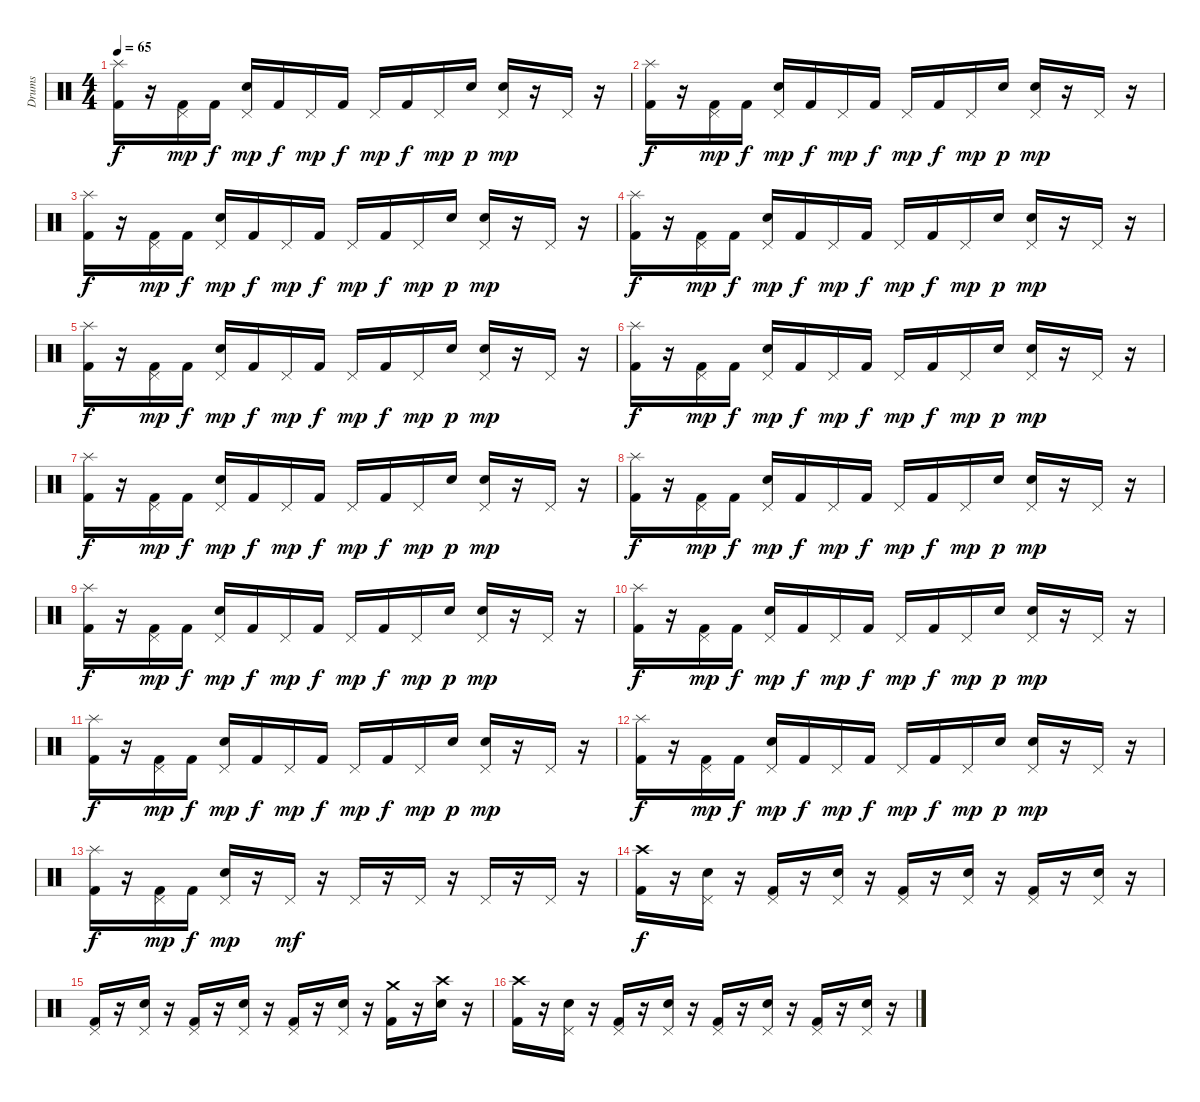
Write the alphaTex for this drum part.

\track ("Drums" "Drums") {instrument percussion}
\staff {score}
\articulation defaults
\ts (4 4)
\tempo 65
\clef neutral
\ks c
("Splash (hit)" "Kick (hit) 2").16{dy f} r.16 ("Pedal Hi-Hat (hit)" "Kick (hit) 2").16{dy mp} "Kick (hit) 2".16{dy f} ("Pedal Hi-Hat (hit)" "Snare (hit) 2").16{dy mp} "Kick (hit) 2".16{dy f} "Pedal Hi-Hat (hit)".16{dy mp} "Kick (hit) 2".16{dy f} "Pedal Hi-Hat (hit)".16{dy mp} "Kick (hit) 2".16{dy f} "Pedal Hi-Hat (hit)".16{dy mp} "Snare (hit) 2".16{dy p} ("Pedal Hi-Hat (hit)" "Snare (hit) 2").16{dy mp} r.16 "Pedal Hi-Hat (hit)".16 r.16 |
("Splash (hit)" "Kick (hit) 2").16{dy f} r.16 ("Pedal Hi-Hat (hit)" "Kick (hit) 2").16{dy mp} "Kick (hit) 2".16{dy f} ("Pedal Hi-Hat (hit)" "Snare (hit) 2").16{dy mp} "Kick (hit) 2".16{dy f} "Pedal Hi-Hat (hit)".16{dy mp} "Kick (hit) 2".16{dy f} "Pedal Hi-Hat (hit)".16{dy mp} "Kick (hit) 2".16{dy f} "Pedal Hi-Hat (hit)".16{dy mp} "Snare (hit) 2".16{dy p} ("Pedal Hi-Hat (hit)" "Snare (hit) 2").16{dy mp} r.16 "Pedal Hi-Hat (hit)".16 r.16 |
("Splash (hit)" "Kick (hit) 2").16{dy f} r.16 ("Pedal Hi-Hat (hit)" "Kick (hit) 2").16{dy mp} "Kick (hit) 2".16{dy f} ("Pedal Hi-Hat (hit)" "Snare (hit) 2").16{dy mp} "Kick (hit) 2".16{dy f} "Pedal Hi-Hat (hit)".16{dy mp} "Kick (hit) 2".16{dy f} "Pedal Hi-Hat (hit)".16{dy mp} "Kick (hit) 2".16{dy f} "Pedal Hi-Hat (hit)".16{dy mp} "Snare (hit) 2".16{dy p} ("Pedal Hi-Hat (hit)" "Snare (hit) 2").16{dy mp} r.16 "Pedal Hi-Hat (hit)".16 r.16 |
("Splash (hit)" "Kick (hit) 2").16{dy f} r.16 ("Pedal Hi-Hat (hit)" "Kick (hit) 2").16{dy mp} "Kick (hit) 2".16{dy f} ("Pedal Hi-Hat (hit)" "Snare (hit) 2").16{dy mp} "Kick (hit) 2".16{dy f} "Pedal Hi-Hat (hit)".16{dy mp} "Kick (hit) 2".16{dy f} "Pedal Hi-Hat (hit)".16{dy mp} "Kick (hit) 2".16{dy f} "Pedal Hi-Hat (hit)".16{dy mp} "Snare (hit) 2".16{dy p} ("Pedal Hi-Hat (hit)" "Snare (hit) 2").16{dy mp} r.16 "Pedal Hi-Hat (hit)".16 r.16 |
("Splash (hit)" "Kick (hit) 2").16{dy f} r.16 ("Pedal Hi-Hat (hit)" "Kick (hit) 2").16{dy mp} "Kick (hit) 2".16{dy f} ("Pedal Hi-Hat (hit)" "Snare (hit) 2").16{dy mp} "Kick (hit) 2".16{dy f} "Pedal Hi-Hat (hit)".16{dy mp} "Kick (hit) 2".16{dy f} "Pedal Hi-Hat (hit)".16{dy mp} "Kick (hit) 2".16{dy f} "Pedal Hi-Hat (hit)".16{dy mp} "Snare (hit) 2".16{dy p} ("Pedal Hi-Hat (hit)" "Snare (hit) 2").16{dy mp} r.16 "Pedal Hi-Hat (hit)".16 r.16 |
("Splash (hit)" "Kick (hit) 2").16{dy f} r.16 ("Pedal Hi-Hat (hit)" "Kick (hit) 2").16{dy mp} "Kick (hit) 2".16{dy f} ("Pedal Hi-Hat (hit)" "Snare (hit) 2").16{dy mp} "Kick (hit) 2".16{dy f} "Pedal Hi-Hat (hit)".16{dy mp} "Kick (hit) 2".16{dy f} "Pedal Hi-Hat (hit)".16{dy mp} "Kick (hit) 2".16{dy f} "Pedal Hi-Hat (hit)".16{dy mp} "Snare (hit) 2".16{dy p} ("Pedal Hi-Hat (hit)" "Snare (hit) 2").16{dy mp} r.16 "Pedal Hi-Hat (hit)".16 r.16 |
("Splash (hit)" "Kick (hit) 2").16{dy f} r.16 ("Pedal Hi-Hat (hit)" "Kick (hit) 2").16{dy mp} "Kick (hit) 2".16{dy f} ("Pedal Hi-Hat (hit)" "Snare (hit) 2").16{dy mp} "Kick (hit) 2".16{dy f} "Pedal Hi-Hat (hit)".16{dy mp} "Kick (hit) 2".16{dy f} "Pedal Hi-Hat (hit)".16{dy mp} "Kick (hit) 2".16{dy f} "Pedal Hi-Hat (hit)".16{dy mp} "Snare (hit) 2".16{dy p} ("Pedal Hi-Hat (hit)" "Snare (hit) 2").16{dy mp} r.16 "Pedal Hi-Hat (hit)".16 r.16 |
("Splash (hit)" "Kick (hit) 2").16{dy f} r.16 ("Pedal Hi-Hat (hit)" "Kick (hit) 2").16{dy mp} "Kick (hit) 2".16{dy f} ("Pedal Hi-Hat (hit)" "Snare (hit) 2").16{dy mp} "Kick (hit) 2".16{dy f} "Pedal Hi-Hat (hit)".16{dy mp} "Kick (hit) 2".16{dy f} "Pedal Hi-Hat (hit)".16{dy mp} "Kick (hit) 2".16{dy f} "Pedal Hi-Hat (hit)".16{dy mp} "Snare (hit) 2".16{dy p} ("Pedal Hi-Hat (hit)" "Snare (hit) 2").16{dy mp} r.16 "Pedal Hi-Hat (hit)".16 r.16 |
("Splash (hit)" "Kick (hit) 2").16{dy f} r.16 ("Pedal Hi-Hat (hit)" "Kick (hit) 2").16{dy mp} "Kick (hit) 2".16{dy f} ("Pedal Hi-Hat (hit)" "Snare (hit) 2").16{dy mp} "Kick (hit) 2".16{dy f} "Pedal Hi-Hat (hit)".16{dy mp} "Kick (hit) 2".16{dy f} "Pedal Hi-Hat (hit)".16{dy mp} "Kick (hit) 2".16{dy f} "Pedal Hi-Hat (hit)".16{dy mp} "Snare (hit) 2".16{dy p} ("Pedal Hi-Hat (hit)" "Snare (hit) 2").16{dy mp} r.16 "Pedal Hi-Hat (hit)".16 r.16 |
("Splash (hit)" "Kick (hit) 2").16{dy f} r.16 ("Pedal Hi-Hat (hit)" "Kick (hit) 2").16{dy mp} "Kick (hit) 2".16{dy f} ("Pedal Hi-Hat (hit)" "Snare (hit) 2").16{dy mp} "Kick (hit) 2".16{dy f} "Pedal Hi-Hat (hit)".16{dy mp} "Kick (hit) 2".16{dy f} "Pedal Hi-Hat (hit)".16{dy mp} "Kick (hit) 2".16{dy f} "Pedal Hi-Hat (hit)".16{dy mp} "Snare (hit) 2".16{dy p} ("Pedal Hi-Hat (hit)" "Snare (hit) 2").16{dy mp} r.16 "Pedal Hi-Hat (hit)".16 r.16 |
("Splash (hit)" "Kick (hit) 2").16{dy f} r.16 ("Pedal Hi-Hat (hit)" "Kick (hit) 2").16{dy mp} "Kick (hit) 2".16{dy f} ("Pedal Hi-Hat (hit)" "Snare (hit) 2").16{dy mp} "Kick (hit) 2".16{dy f} "Pedal Hi-Hat (hit)".16{dy mp} "Kick (hit) 2".16{dy f} "Pedal Hi-Hat (hit)".16{dy mp} "Kick (hit) 2".16{dy f} "Pedal Hi-Hat (hit)".16{dy mp} "Snare (hit) 2".16{dy p} ("Pedal Hi-Hat (hit)" "Snare (hit) 2").16{dy mp} r.16 "Pedal Hi-Hat (hit)".16 r.16 |
("Splash (hit)" "Kick (hit) 2").16{dy f} r.16 ("Pedal Hi-Hat (hit)" "Kick (hit) 2").16{dy mp} "Kick (hit) 2".16{dy f} ("Pedal Hi-Hat (hit)" "Snare (hit) 2").16{dy mp} "Kick (hit) 2".16{dy f} "Pedal Hi-Hat (hit)".16{dy mp} "Kick (hit) 2".16{dy f} "Pedal Hi-Hat (hit)".16{dy mp} "Kick (hit) 2".16{dy f} "Pedal Hi-Hat (hit)".16{dy mp} "Snare (hit) 2".16{dy p} ("Pedal Hi-Hat (hit)" "Snare (hit) 2").16{dy mp} r.16 "Pedal Hi-Hat (hit)".16 r.16 |
("Splash (hit)" "Kick (hit) 2").16{dy f} r.16 ("Pedal Hi-Hat (hit)" "Kick (hit) 2").16{dy mp} "Kick (hit) 2".16{dy f} ("Pedal Hi-Hat (hit)" "Snare (hit) 2").16{dy mp} r.16 "Pedal Hi-Hat (hit)".16{dy mf} r.16 "Pedal Hi-Hat (hit)".16 r.16 "Pedal Hi-Hat (hit)".16 r.16 "Pedal Hi-Hat (hit)".16 r.16 "Pedal Hi-Hat (hit)".16 r.16 |
("Crash high (hit)" "Kick (hit) 2").16{dy f} r.16 ("Pedal Hi-Hat (hit)" "Snare (hit) 2").16 r.16 ("Pedal Hi-Hat (hit)" "Kick (hit) 2").16 r.16 ("Pedal Hi-Hat (hit)" "Snare (hit) 2").16 r.16 ("Pedal Hi-Hat (hit)" "Kick (hit) 2").16 r.16 ("Pedal Hi-Hat (hit)" "Snare (hit) 2").16 r.16 ("Pedal Hi-Hat (hit)" "Kick (hit) 2").16 r.16 ("Pedal Hi-Hat (hit)" "Snare (hit) 2").16 r.16 |
("Pedal Hi-Hat (hit)" "Kick (hit) 2").16 r.16 ("Pedal Hi-Hat (hit)" "Snare (hit) 2").16 r.16 ("Pedal Hi-Hat (hit)" "Kick (hit) 2").16 r.16 ("Pedal Hi-Hat (hit)" "Snare (hit) 2").16 r.16 ("Pedal Hi-Hat (hit)" "Kick (hit) 2").16 r.16 ("Pedal Hi-Hat (hit)" "Snare (hit) 2").16 r.16 ("Crash medium (hit)" "Kick (hit) 2").16 r.16 ("Crash high (hit)" "Snare (hit) 2").16 r.16 |
("Crash high (hit)" "Kick (hit) 2").16 r.16 ("Pedal Hi-Hat (hit)" "Snare (hit) 2").16 r.16 ("Pedal Hi-Hat (hit)" "Kick (hit) 2").16 r.16 ("Pedal Hi-Hat (hit)" "Snare (hit) 2").16 r.16 ("Pedal Hi-Hat (hit)" "Kick (hit) 2").16 r.16 ("Pedal Hi-Hat (hit)" "Snare (hit) 2").16 r.16 ("Pedal Hi-Hat (hit)" "Kick (hit) 2").16 r.16 ("Pedal Hi-Hat (hit)" "Snare (hit) 2").16 r.16
